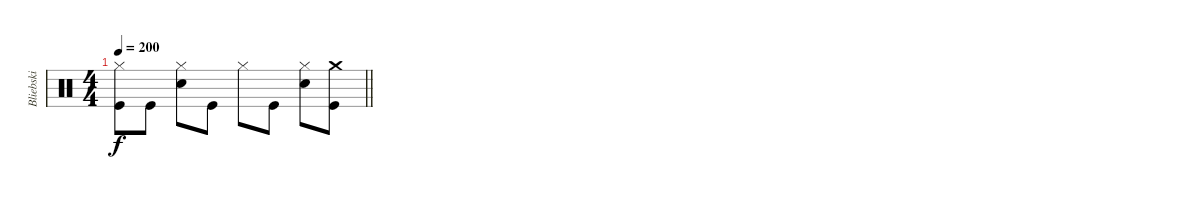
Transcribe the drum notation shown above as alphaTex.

\track ("Bliebski" "Bliebski") {instrument percussion}
\staff {score}
\articulation defaults
\ts (4 4)
\tempo 200
\clef neutral
\barLineRight lightlight
\ks c
("Hi-Hat (closed)" "Kick (hit)").8{dy f} "Kick (hit)".8 ("Hi-Hat (closed)" "Snare (hit) 2").8 "Kick (hit)".8 "Hi-Hat (closed)".8 "Kick (hit)".8 ("Hi-Hat (closed)" "Snare (hit) 2").8 ("Crash medium (hit)" "Kick (hit)").8
